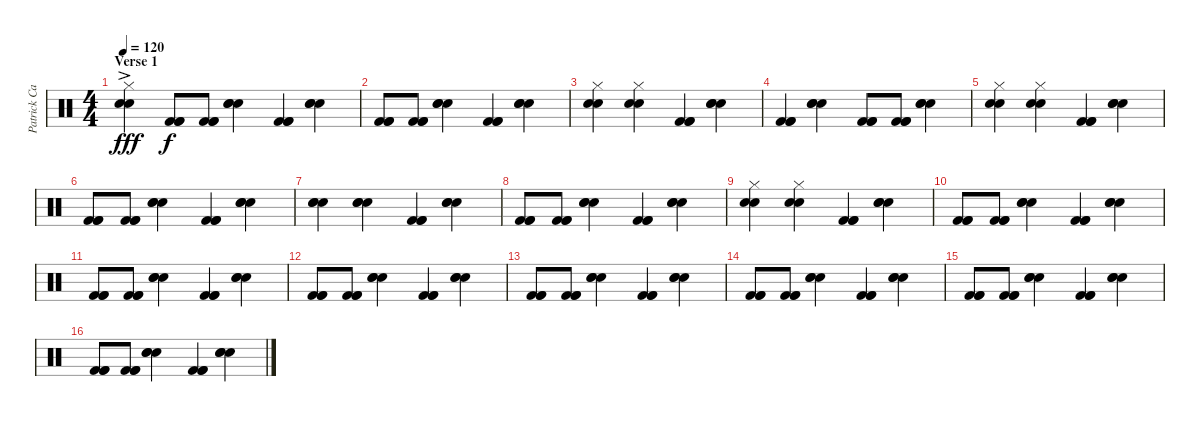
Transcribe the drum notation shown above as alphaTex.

\track ("Patrick Carney (Drums)" "Patrick Ca") {instrument percussion}
\staff {score}
\articulation defaults
\ts (4 4)
\section ("" "Verse 1")
\tempo 120
\clef neutral
\ks c
("Electric Snare (hit)" "Snare (hit) 2"{ac} "Hi-Hat (closed)").4{dy fff} ("Kick (hit) 2" "Kick (hit) 2" "Kick (hit) 2").8{dy f} ("Kick (hit) 2" "Kick (hit) 2" "Kick (hit) 2").8 ("Electric Snare (hit)" "Snare (hit) 2" "Snare (hit) 2").4 ("Kick (hit) 2" "Kick (hit) 2" "Kick (hit) 2").4 ("Electric Snare (hit)" "Snare (hit) 2" "Snare (hit) 2").4 |
("Kick (hit) 2" "Kick (hit) 2" "Kick (hit) 2").8 ("Kick (hit) 2" "Kick (hit) 2" "Kick (hit) 2").8 ("Electric Snare (hit)" "Snare (hit) 2" "Snare (hit) 2").4 ("Kick (hit) 2" "Kick (hit) 2" "Kick (hit) 2").4 ("Electric Snare (hit)" "Snare (hit) 2" "Snare (hit) 2").4 |
("Electric Snare (hit)" "Snare (hit) 2" "Hi-Hat (closed)").4 ("Electric Snare (hit)" "Snare (hit) 2" "Hi-Hat (closed)").4 ("Kick (hit) 2" "Kick (hit) 2" "Kick (hit) 2").4 ("Electric Snare (hit)" "Snare (hit) 2" "Snare (hit) 2").4 |
("Kick (hit) 2" "Kick (hit) 2" "Kick (hit) 2").4 ("Electric Snare (hit)" "Snare (hit) 2" "Snare (hit) 2").4 ("Kick (hit) 2" "Kick (hit) 2" "Kick (hit) 2").8 ("Kick (hit) 2" "Kick (hit) 2" "Kick (hit) 2").8 ("Electric Snare (hit)" "Snare (hit) 2" "Snare (hit) 2").4 |
("Electric Snare (hit)" "Snare (hit) 2" "Hi-Hat (closed)").4 ("Electric Snare (hit)" "Snare (hit) 2" "Hi-Hat (closed)").4 ("Kick (hit) 2" "Kick (hit) 2" "Kick (hit) 2").4 ("Electric Snare (hit)" "Snare (hit) 2" "Snare (hit) 2").4 |
("Kick (hit) 2" "Kick (hit) 2" "Kick (hit) 2").8 ("Kick (hit) 2" "Kick (hit) 2" "Kick (hit) 2").8 ("Electric Snare (hit)" "Snare (hit) 2" "Snare (hit) 2").4 ("Kick (hit) 2" "Kick (hit) 2" "Kick (hit) 2").4 ("Electric Snare (hit)" "Snare (hit) 2" "Snare (hit) 2").4 |
("Electric Snare (hit)" "Snare (hit) 2" "Snare (hit) 2").4 ("Electric Snare (hit)" "Snare (hit) 2" "Snare (hit) 2").4 ("Kick (hit) 2" "Kick (hit) 2" "Kick (hit) 2").4 ("Electric Snare (hit)" "Snare (hit) 2" "Snare (hit) 2").4 |
("Kick (hit) 2" "Kick (hit) 2" "Kick (hit) 2").8 ("Kick (hit) 2" "Kick (hit) 2" "Kick (hit) 2").8 ("Electric Snare (hit)" "Snare (hit) 2" "Snare (hit) 2").4 ("Kick (hit) 2" "Kick (hit) 2" "Kick (hit) 2").4 ("Electric Snare (hit)" "Snare (hit) 2" "Snare (hit) 2").4 |
("Electric Snare (hit)" "Snare (hit) 2" "Hi-Hat (closed)").4 ("Electric Snare (hit)" "Snare (hit) 2" "Hi-Hat (closed)").4 ("Kick (hit) 2" "Kick (hit) 2" "Kick (hit) 2").4 ("Electric Snare (hit)" "Snare (hit) 2" "Snare (hit) 2").4 |
("Kick (hit) 2" "Kick (hit) 2" "Kick (hit) 2").8 ("Kick (hit) 2" "Kick (hit) 2" "Kick (hit) 2").8 ("Electric Snare (hit)" "Snare (hit) 2" "Snare (hit) 2").4 ("Kick (hit) 2" "Kick (hit) 2" "Kick (hit) 2").4 ("Electric Snare (hit)" "Snare (hit) 2" "Snare (hit) 2").4 |
("Kick (hit) 2" "Kick (hit) 2" "Kick (hit) 2").8 ("Kick (hit) 2" "Kick (hit) 2" "Kick (hit) 2").8 ("Electric Snare (hit)" "Snare (hit) 2" "Snare (hit) 2").4 ("Kick (hit) 2" "Kick (hit) 2" "Kick (hit) 2").4 ("Electric Snare (hit)" "Snare (hit) 2" "Snare (hit) 2").4 |
("Kick (hit) 2" "Kick (hit) 2" "Kick (hit) 2").8 ("Kick (hit) 2" "Kick (hit) 2" "Kick (hit) 2").8 ("Electric Snare (hit)" "Snare (hit) 2" "Snare (hit) 2").4 ("Kick (hit) 2" "Kick (hit) 2" "Kick (hit) 2").4 ("Electric Snare (hit)" "Snare (hit) 2" "Snare (hit) 2").4 |
("Kick (hit) 2" "Kick (hit) 2" "Kick (hit) 2").8 ("Kick (hit) 2" "Kick (hit) 2" "Kick (hit) 2").8 ("Electric Snare (hit)" "Snare (hit) 2" "Snare (hit) 2").4 ("Kick (hit) 2" "Kick (hit) 2" "Kick (hit) 2").4 ("Electric Snare (hit)" "Snare (hit) 2" "Snare (hit) 2").4 |
("Kick (hit) 2" "Kick (hit) 2" "Kick (hit) 2").8 ("Kick (hit) 2" "Kick (hit) 2" "Kick (hit) 2").8 ("Electric Snare (hit)" "Snare (hit) 2" "Snare (hit) 2").4 ("Kick (hit) 2" "Kick (hit) 2" "Kick (hit) 2").4 ("Electric Snare (hit)" "Snare (hit) 2" "Snare (hit) 2").4 |
("Kick (hit) 2" "Kick (hit) 2" "Kick (hit) 2").8 ("Kick (hit) 2" "Kick (hit) 2" "Kick (hit) 2").8 ("Electric Snare (hit)" "Snare (hit) 2" "Snare (hit) 2").4 ("Kick (hit) 2" "Kick (hit) 2" "Kick (hit) 2").4 ("Electric Snare (hit)" "Snare (hit) 2" "Snare (hit) 2").4 |
("Kick (hit) 2" "Kick (hit) 2" "Kick (hit) 2").8 ("Kick (hit) 2" "Kick (hit) 2" "Kick (hit) 2").8 ("Electric Snare (hit)" "Snare (hit) 2" "Snare (hit) 2").4 ("Kick (hit) 2" "Kick (hit) 2" "Kick (hit) 2").4 ("Electric Snare (hit)" "Snare (hit) 2" "Snare (hit) 2").4
